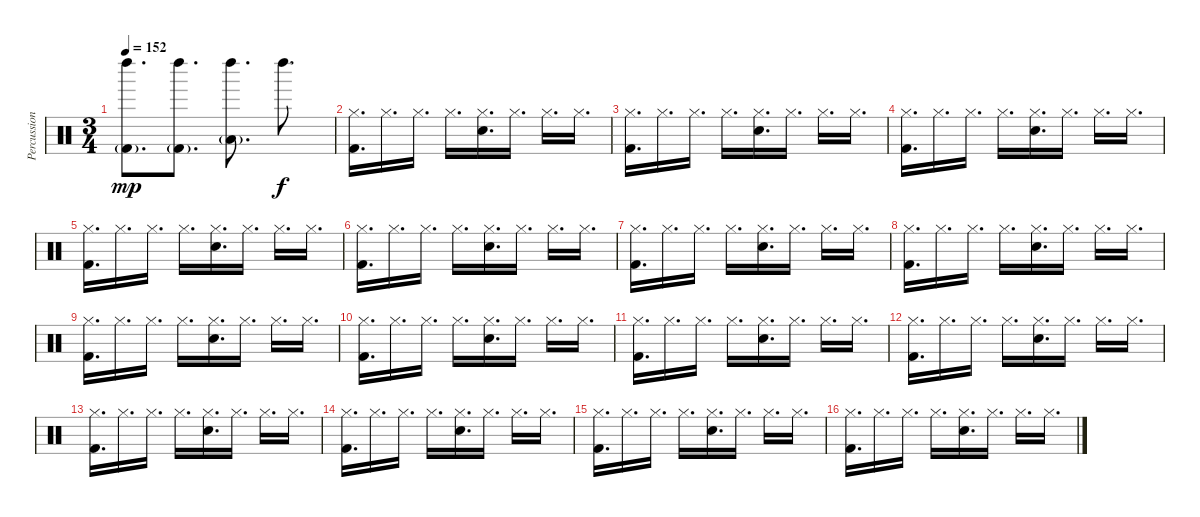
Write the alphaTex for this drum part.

\track ("Percussion" "Percussion") {instrument percussion}
\staff {score}
\articulation defaults
\ts (3 4)
\tempo 152
\clef neutral
\ks c
("Left Maraca (hit)" "Kick (hit) 2"{g}).8{d dy mp} ("Left Maraca (hit)" "Kick (hit) 2"{g}).8{d} ("Left Maraca (hit)" "Low Tom (hit)"{g}).8{d} "Left Maraca (hit)".8{d dy f} |
("Hi-Hat (closed)" "Kick (hit) 2").16{d} "Hi-Hat (closed)".16{d} "Hi-Hat (closed)".16{d} "Hi-Hat (closed)".16{d} ("Hi-Hat (closed)" "Electric Snare (hit)").16{d} "Hi-Hat (closed)".16{d} "Hi-Hat (closed)".16{d} "Hi-Hat (closed)".16{d} |
("Hi-Hat (closed)" "Kick (hit) 2").16{d} "Hi-Hat (closed)".16{d} "Hi-Hat (closed)".16{d} "Hi-Hat (closed)".16{d} ("Hi-Hat (closed)" "Electric Snare (hit)").16{d} "Hi-Hat (closed)".16{d} "Hi-Hat (closed)".16{d} "Hi-Hat (closed)".16{d} |
("Hi-Hat (closed)" "Kick (hit) 2").16{d} "Hi-Hat (closed)".16{d} "Hi-Hat (closed)".16{d} "Hi-Hat (closed)".16{d} ("Hi-Hat (closed)" "Electric Snare (hit)").16{d} "Hi-Hat (closed)".16{d} "Hi-Hat (closed)".16{d} "Hi-Hat (closed)".16{d} |
("Hi-Hat (closed)" "Kick (hit) 2").16{d} "Hi-Hat (closed)".16{d} "Hi-Hat (closed)".16{d} "Hi-Hat (closed)".16{d} ("Hi-Hat (closed)" "Electric Snare (hit)").16{d} "Hi-Hat (closed)".16{d} "Hi-Hat (closed)".16{d} "Hi-Hat (closed)".16{d} |
("Hi-Hat (closed)" "Kick (hit) 2").16{d} "Hi-Hat (closed)".16{d} "Hi-Hat (closed)".16{d} "Hi-Hat (closed)".16{d} ("Hi-Hat (closed)" "Electric Snare (hit)").16{d} "Hi-Hat (closed)".16{d} "Hi-Hat (closed)".16{d} "Hi-Hat (closed)".16{d} |
("Hi-Hat (closed)" "Kick (hit) 2").16{d} "Hi-Hat (closed)".16{d} "Hi-Hat (closed)".16{d} "Hi-Hat (closed)".16{d} ("Hi-Hat (closed)" "Electric Snare (hit)").16{d} "Hi-Hat (closed)".16{d} "Hi-Hat (closed)".16{d} "Hi-Hat (closed)".16{d} |
("Hi-Hat (closed)" "Kick (hit) 2").16{d} "Hi-Hat (closed)".16{d} "Hi-Hat (closed)".16{d} "Hi-Hat (closed)".16{d} ("Hi-Hat (closed)" "Electric Snare (hit)").16{d} "Hi-Hat (closed)".16{d} "Hi-Hat (closed)".16{d} "Hi-Hat (closed)".16{d} |
("Hi-Hat (closed)" "Kick (hit) 2").16{d} "Hi-Hat (closed)".16{d} "Hi-Hat (closed)".16{d} "Hi-Hat (closed)".16{d} ("Hi-Hat (closed)" "Electric Snare (hit)").16{d} "Hi-Hat (closed)".16{d} "Hi-Hat (closed)".16{d} "Hi-Hat (closed)".16{d} |
("Hi-Hat (closed)" "Kick (hit) 2").16{d} "Hi-Hat (closed)".16{d} "Hi-Hat (closed)".16{d} "Hi-Hat (closed)".16{d} ("Hi-Hat (closed)" "Electric Snare (hit)").16{d} "Hi-Hat (closed)".16{d} "Hi-Hat (closed)".16{d} "Hi-Hat (closed)".16{d} |
("Hi-Hat (closed)" "Kick (hit) 2").16{d} "Hi-Hat (closed)".16{d} "Hi-Hat (closed)".16{d} "Hi-Hat (closed)".16{d} ("Hi-Hat (closed)" "Electric Snare (hit)").16{d} "Hi-Hat (closed)".16{d} "Hi-Hat (closed)".16{d} "Hi-Hat (closed)".16{d} |
("Hi-Hat (closed)" "Kick (hit) 2").16{d} "Hi-Hat (closed)".16{d} "Hi-Hat (closed)".16{d} "Hi-Hat (closed)".16{d} ("Hi-Hat (closed)" "Electric Snare (hit)").16{d} "Hi-Hat (closed)".16{d} "Hi-Hat (closed)".16{d} "Hi-Hat (closed)".16{d} |
("Hi-Hat (closed)" "Kick (hit) 2").16{d} "Hi-Hat (closed)".16{d} "Hi-Hat (closed)".16{d} "Hi-Hat (closed)".16{d} ("Hi-Hat (closed)" "Electric Snare (hit)").16{d} "Hi-Hat (closed)".16{d} "Hi-Hat (closed)".16{d} "Hi-Hat (closed)".16{d} |
("Hi-Hat (closed)" "Kick (hit) 2").16{d} "Hi-Hat (closed)".16{d} "Hi-Hat (closed)".16{d} "Hi-Hat (closed)".16{d} ("Hi-Hat (closed)" "Electric Snare (hit)").16{d} "Hi-Hat (closed)".16{d} "Hi-Hat (closed)".16{d} "Hi-Hat (closed)".16{d} |
("Hi-Hat (closed)" "Kick (hit) 2").16{d} "Hi-Hat (closed)".16{d} "Hi-Hat (closed)".16{d} "Hi-Hat (closed)".16{d} ("Hi-Hat (closed)" "Electric Snare (hit)").16{d} "Hi-Hat (closed)".16{d} "Hi-Hat (closed)".16{d} "Hi-Hat (closed)".16{d} |
("Hi-Hat (closed)" "Kick (hit) 2").16{d} "Hi-Hat (closed)".16{d} "Hi-Hat (closed)".16{d} "Hi-Hat (closed)".16{d} ("Hi-Hat (closed)" "Electric Snare (hit)").16{d} "Hi-Hat (closed)".16{d} "Hi-Hat (closed)".16{d} "Hi-Hat (closed)".16{d}
